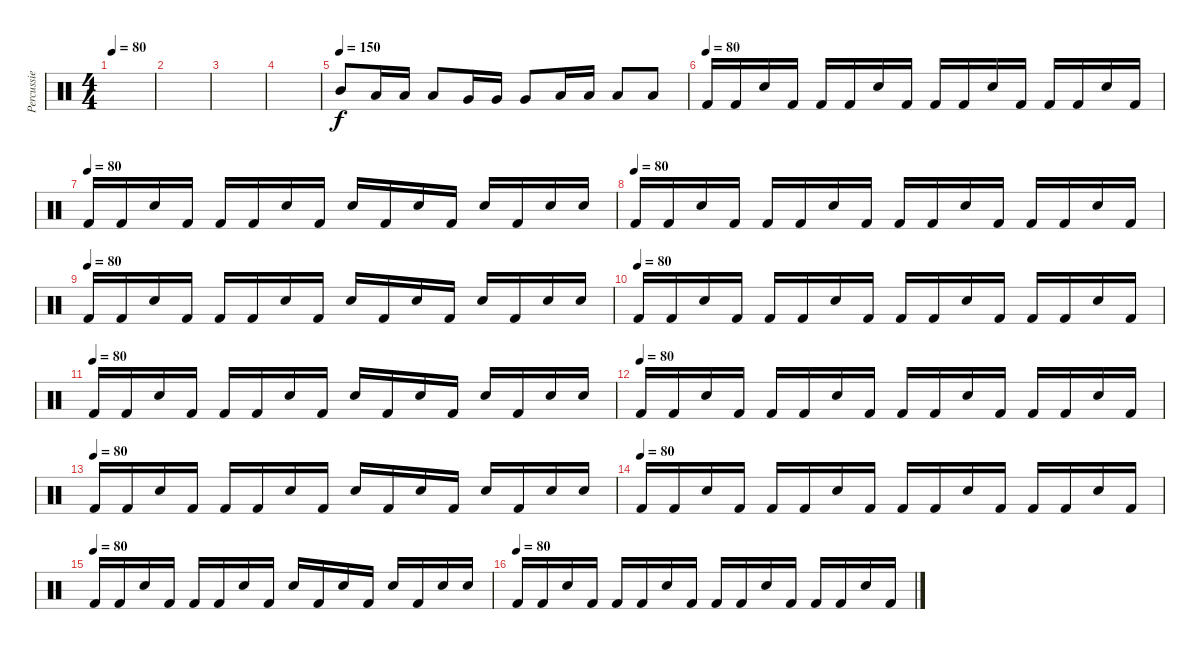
\track ("Percussie" "Percussie") {instrument percussion}
\staff {score}
\articulation defaults
\ts (4 4)
\tempo 80
\tempo 140
\tempo 80
\clef neutral
\ks c
|
|
|
|
\tempo (150)
"Mid Tom (hit)".8 "Low Tom (hit)".16 "Low Tom (hit)".16 "Low Tom (hit)".8 "Very Low Tom (hit)".16 "Very Low Tom (hit)".16 "Very Low Tom (hit)".8 "Low Floor Tom (hit)".16 "Low Floor Tom (hit)".16 "Low Floor Tom (hit)".8 "Low Floor Tom (hit)".8 |
\tempo (80)
"Kick (hit) 2".16 "Kick (hit) 2".16 "Electric Snare (hit)".16 "Kick (hit) 2".16 "Kick (hit) 2".16 "Kick (hit) 2".16 "Electric Snare (hit)".16 "Kick (hit) 2".16 "Kick (hit) 2".16 "Kick (hit) 2".16 "Electric Snare (hit)".16 "Kick (hit) 2".16 "Kick (hit) 2".16 "Kick (hit) 2".16 "Electric Snare (hit)".16 "Kick (hit) 2".16 |
\tempo (80)
"Kick (hit) 2".16 "Kick (hit) 2".16 "Electric Snare (hit)".16 "Kick (hit) 2".16 "Kick (hit) 2".16 "Kick (hit) 2".16 "Electric Snare (hit)".16 "Kick (hit) 2".16 "Electric Snare (hit)".16 "Kick (hit) 2".16 "Electric Snare (hit)".16 "Kick (hit) 2".16 "Electric Snare (hit)".16 "Kick (hit) 2".16 "Electric Snare (hit)".16 "Electric Snare (hit)".16 |
\tempo (80)
"Kick (hit) 2".16 "Kick (hit) 2".16 "Electric Snare (hit)".16 "Kick (hit) 2".16 "Kick (hit) 2".16 "Kick (hit) 2".16 "Electric Snare (hit)".16 "Kick (hit) 2".16 "Kick (hit) 2".16 "Kick (hit) 2".16 "Electric Snare (hit)".16 "Kick (hit) 2".16 "Kick (hit) 2".16 "Kick (hit) 2".16 "Electric Snare (hit)".16 "Kick (hit) 2".16 |
\tempo (80)
"Kick (hit) 2".16 "Kick (hit) 2".16 "Electric Snare (hit)".16 "Kick (hit) 2".16 "Kick (hit) 2".16 "Kick (hit) 2".16 "Electric Snare (hit)".16 "Kick (hit) 2".16 "Electric Snare (hit)".16 "Kick (hit) 2".16 "Electric Snare (hit)".16 "Kick (hit) 2".16 "Electric Snare (hit)".16 "Kick (hit) 2".16 "Electric Snare (hit)".16 "Electric Snare (hit)".16 |
\tempo (80)
"Kick (hit) 2".16 "Kick (hit) 2".16 "Electric Snare (hit)".16 "Kick (hit) 2".16 "Kick (hit) 2".16 "Kick (hit) 2".16 "Electric Snare (hit)".16 "Kick (hit) 2".16 "Kick (hit) 2".16 "Kick (hit) 2".16 "Electric Snare (hit)".16 "Kick (hit) 2".16 "Kick (hit) 2".16 "Kick (hit) 2".16 "Electric Snare (hit)".16 "Kick (hit) 2".16 |
\tempo (80)
"Kick (hit) 2".16 "Kick (hit) 2".16 "Electric Snare (hit)".16 "Kick (hit) 2".16 "Kick (hit) 2".16 "Kick (hit) 2".16 "Electric Snare (hit)".16 "Kick (hit) 2".16 "Electric Snare (hit)".16 "Kick (hit) 2".16 "Electric Snare (hit)".16 "Kick (hit) 2".16 "Electric Snare (hit)".16 "Kick (hit) 2".16 "Electric Snare (hit)".16 "Electric Snare (hit)".16 |
\tempo (80)
"Kick (hit) 2".16 "Kick (hit) 2".16 "Electric Snare (hit)".16 "Kick (hit) 2".16 "Kick (hit) 2".16 "Kick (hit) 2".16 "Electric Snare (hit)".16 "Kick (hit) 2".16 "Kick (hit) 2".16 "Kick (hit) 2".16 "Electric Snare (hit)".16 "Kick (hit) 2".16 "Kick (hit) 2".16 "Kick (hit) 2".16 "Electric Snare (hit)".16 "Kick (hit) 2".16 |
\tempo (80)
"Kick (hit) 2".16 "Kick (hit) 2".16 "Electric Snare (hit)".16 "Kick (hit) 2".16 "Kick (hit) 2".16 "Kick (hit) 2".16 "Electric Snare (hit)".16 "Kick (hit) 2".16 "Electric Snare (hit)".16 "Kick (hit) 2".16 "Electric Snare (hit)".16 "Kick (hit) 2".16 "Electric Snare (hit)".16 "Kick (hit) 2".16 "Electric Snare (hit)".16 "Electric Snare (hit)".16 |
\tempo (80)
"Kick (hit) 2".16 "Kick (hit) 2".16 "Electric Snare (hit)".16 "Kick (hit) 2".16 "Kick (hit) 2".16 "Kick (hit) 2".16 "Electric Snare (hit)".16 "Kick (hit) 2".16 "Kick (hit) 2".16 "Kick (hit) 2".16 "Electric Snare (hit)".16 "Kick (hit) 2".16 "Kick (hit) 2".16 "Kick (hit) 2".16 "Electric Snare (hit)".16 "Kick (hit) 2".16 |
\tempo (80)
"Kick (hit) 2".16 "Kick (hit) 2".16 "Electric Snare (hit)".16 "Kick (hit) 2".16 "Kick (hit) 2".16 "Kick (hit) 2".16 "Electric Snare (hit)".16 "Kick (hit) 2".16 "Electric Snare (hit)".16 "Kick (hit) 2".16 "Electric Snare (hit)".16 "Kick (hit) 2".16 "Electric Snare (hit)".16 "Kick (hit) 2".16 "Electric Snare (hit)".16 "Electric Snare (hit)".16 |
\tempo (80)
"Kick (hit) 2".16 "Kick (hit) 2".16 "Electric Snare (hit)".16 "Kick (hit) 2".16 "Kick (hit) 2".16 "Kick (hit) 2".16 "Electric Snare (hit)".16 "Kick (hit) 2".16 "Kick (hit) 2".16 "Kick (hit) 2".16 "Electric Snare (hit)".16 "Kick (hit) 2".16 "Kick (hit) 2".16 "Kick (hit) 2".16 "Electric Snare (hit)".16 "Kick (hit) 2".16
